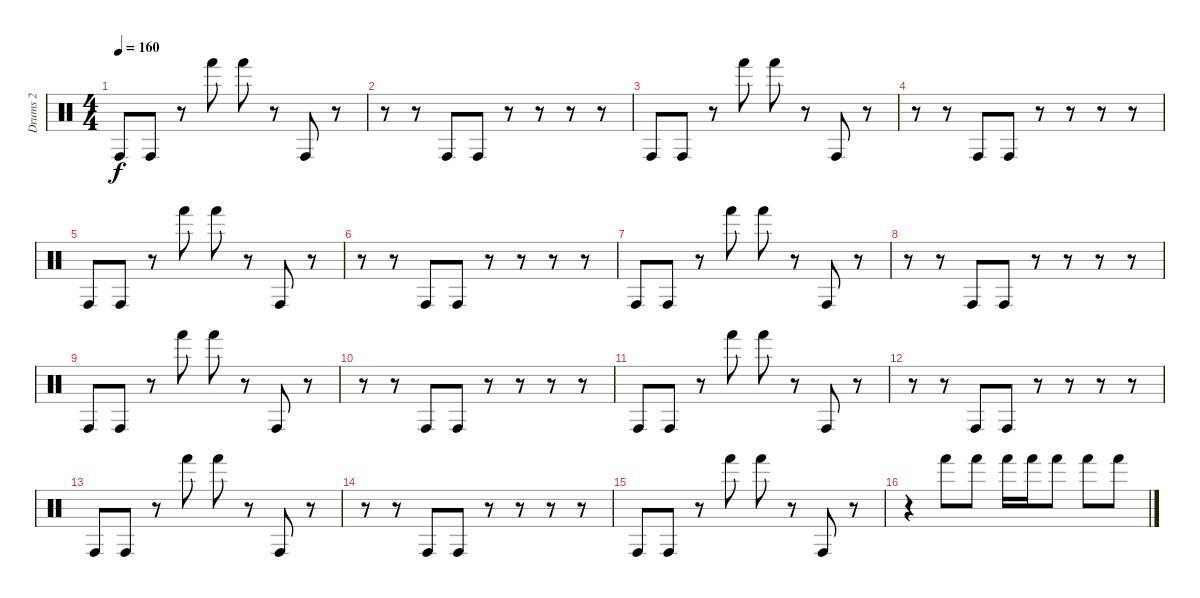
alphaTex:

\track ("Drums 2" "Drums 2") {instrument percussion}
\staff {score}
\articulation defaults
\ts (4 4)
\tempo 160
\clef neutral
\ks c "Conga high (hit)".8{dy f} "Conga high (hit)".8
r.8 "Hand (hit)".8 "Hand (hit)".8 r.8 "Conga high (hit)".8 r.8 |
r.8 r.8 "Conga high (hit)".8 "Conga high (hit)".8 r.8 r.8 r.8 r.8 |
"Conga high (hit)".8 "Conga high (hit)".8 r.8 "Hand (hit)".8 "Hand (hit)".8 r.8 "Conga high (hit)".8 r.8 |
r.8 r.8 "Conga high (hit)".8 "Conga high (hit)".8 r.8 r.8 r.8 r.8 |
"Conga high (hit)".8 "Conga high (hit)".8 r.8 "Hand (hit)".8 "Hand (hit)".8 r.8 "Conga high (hit)".8 r.8 |
r.8 r.8 "Conga high (hit)".8 "Conga high (hit)".8 r.8 r.8 r.8 r.8 |
"Conga high (hit)".8 "Conga high (hit)".8 r.8 "Hand (hit)".8 "Hand (hit)".8 r.8 "Conga high (hit)".8 r.8 |
r.8 r.8 "Conga high (hit)".8 "Conga high (hit)".8 r.8 r.8 r.8 r.8 |
"Conga high (hit)".8 "Conga high (hit)".8 r.8 "Hand (hit)".8 "Hand (hit)".8 r.8 "Conga high (hit)".8 r.8 |
r.8 r.8 "Conga high (hit)".8 "Conga high (hit)".8 r.8 r.8 r.8 r.8 |
"Conga high (hit)".8 "Conga high (hit)".8 r.8 "Hand (hit)".8 "Hand (hit)".8 r.8 "Conga high (hit)".8 r.8 |
r.8 r.8 "Conga high (hit)".8 "Conga high (hit)".8 r.8 r.8 r.8 r.8 |
"Conga high (hit)".8 "Conga high (hit)".8 r.8 "Hand (hit)".8 "Hand (hit)".8 r.8 "Conga high (hit)".8 r.8 |
r.8 r.8 "Conga high (hit)".8 "Conga high (hit)".8 r.8 r.8 r.8 r.8 |
"Conga high (hit)".8 "Conga high (hit)".8 r.8 "Hand (hit)".8 "Hand (hit)".8 r.8 "Conga high (hit)".8 r.8 |
r.4 "Hand (hit)".8 "Hand (hit)".8 "Hand (hit)".16 "Hand (hit)".16 "Hand (hit)".8 "Hand (hit)".8 "Hand (hit)".8
